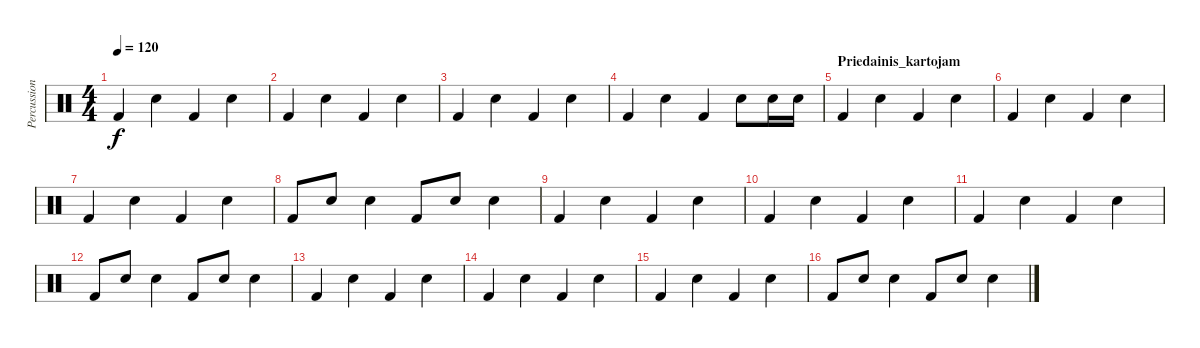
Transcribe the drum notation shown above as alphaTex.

\track ("Percussion" "Percussion") {instrument percussion}
\staff {score}
\articulation defaults
\ts (4 4)
\tempo 120
\clef neutral
\ks c "Kick (hit) 2".4{dy f} "Snare (hit) 2".4 "Kick (hit) 2".4 "Snare (hit) 2".4
|
"Kick (hit) 2".4 "Snare (hit) 2".4 "Kick (hit) 2".4 "Snare (hit) 2".4 |
"Kick (hit) 2".4 "Snare (hit) 2".4 "Kick (hit) 2".4 "Snare (hit) 2".4 |
"Kick (hit) 2".4 "Snare (hit) 2".4 "Kick (hit) 2".4 "Snare (hit) 2".8 "Snare (hit) 2".16 "Snare (hit) 2".16 |
\section ("" "Priedainis_kartojam")
"Kick (hit) 2".4 "Snare (hit) 2".4 "Kick (hit) 2".4 "Snare (hit) 2".4 |
"Kick (hit) 2".4 "Snare (hit) 2".4 "Kick (hit) 2".4 "Snare (hit) 2".4 |
"Kick (hit) 2".4 "Snare (hit) 2".4 "Kick (hit) 2".4 "Snare (hit) 2".4 |
"Kick (hit) 2".8 "Snare (hit) 2".8 "Snare (hit) 2".4 "Kick (hit) 2".8 "Snare (hit) 2".8 "Snare (hit) 2".4 |
"Kick (hit) 2".4 "Snare (hit) 2".4 "Kick (hit) 2".4 "Snare (hit) 2".4 |
"Kick (hit) 2".4 "Snare (hit) 2".4 "Kick (hit) 2".4 "Snare (hit) 2".4 |
"Kick (hit) 2".4 "Snare (hit) 2".4 "Kick (hit) 2".4 "Snare (hit) 2".4 |
"Kick (hit) 2".8 "Snare (hit) 2".8 "Snare (hit) 2".4 "Kick (hit) 2".8 "Snare (hit) 2".8 "Snare (hit) 2".4 |
"Kick (hit) 2".4 "Snare (hit) 2".4 "Kick (hit) 2".4 "Snare (hit) 2".4 |
"Kick (hit) 2".4 "Snare (hit) 2".4 "Kick (hit) 2".4 "Snare (hit) 2".4 |
"Kick (hit) 2".4 "Snare (hit) 2".4 "Kick (hit) 2".4 "Snare (hit) 2".4 |
"Kick (hit) 2".8 "Snare (hit) 2".8 "Snare (hit) 2".4 "Kick (hit) 2".8 "Snare (hit) 2".8 "Snare (hit) 2".4
